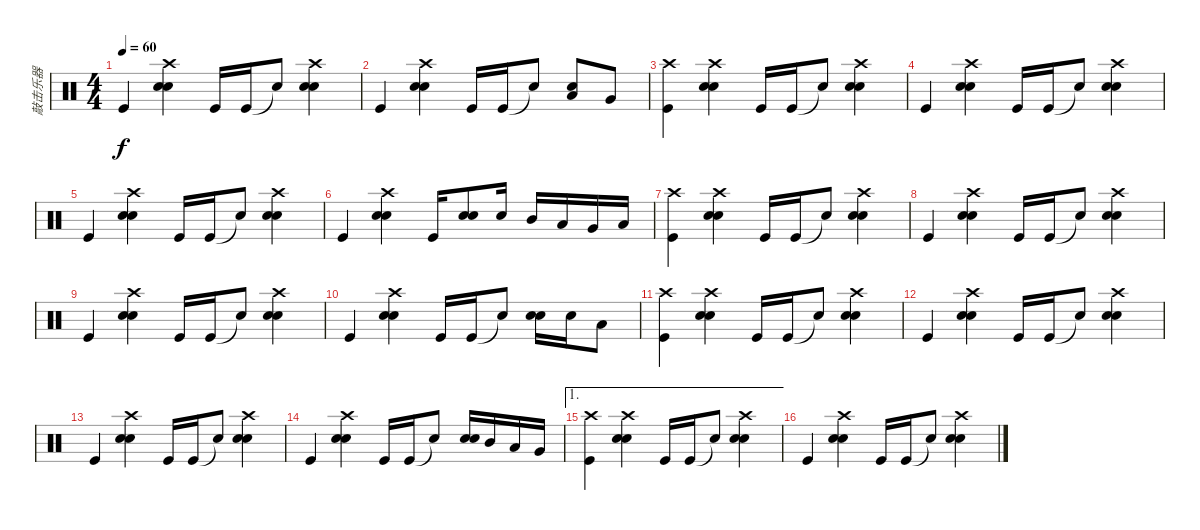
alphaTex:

\track ("敲击乐器" "敲击乐器") {instrument percussion}
\staff {score}
\articulation defaults
\ts (4 4)
\tempo 60
\clef neutral
\ks c "Kick (hit)".4{dy f}
("Crash high (hit)" "Snare (hit) 2" "Snare (hit) 2").4 "Kick (hit)".16 "Kick (hit)".16 "Snare (hit)"{t}.8 ("Crash high (hit)" "Snare (hit) 2" "Snare (hit) 2").4 |
"Kick (hit)".4 ("Crash high (hit)" "Snare (hit) 2" "Snare (hit) 2").4 "Kick (hit)".16 "Kick (hit)".16 "Snare (hit)"{t}.8 ("Low Tom (hit)" "Snare (hit) 2").8 "Very Low Tom (hit)".8 |
("Crash high (hit)" "Kick (hit)").4 ("Crash high (hit)" "Snare (hit) 2" "Snare (hit) 2").4 "Kick (hit)".16 "Kick (hit)".16 "Snare (hit)"{t}.8 ("Crash high (hit)" "Snare (hit) 2" "Snare (hit) 2").4 |
"Kick (hit)".4 ("Crash high (hit)" "Snare (hit) 2" "Snare (hit) 2").4 "Kick (hit)".16 "Kick (hit)".16 "Snare (hit)"{t}.8 ("Crash high (hit)" "Snare (hit) 2" "Snare (hit) 2").4 |
"Kick (hit)".4 ("Crash high (hit)" "Snare (hit) 2" "Snare (hit) 2").4 "Kick (hit)".16 "Kick (hit)".16 "Snare (hit)"{t}.8 ("Crash high (hit)" "Snare (hit) 2" "Snare (hit) 2").4 |
"Kick (hit)".4 ("Crash high (hit)" "Snare (hit) 2" "Snare (hit) 2").4 "Kick (hit)".16 ("Snare (hit) 2" "Snare (hit) 2").8 "Snare (hit) 2".16 "Mid Tom (hit)".16 "Low Tom (hit)".16 "Very Low Tom (hit)".16 "Low Floor Tom (hit)".16 |
("Crash high (hit)" "Kick (hit)").4 ("Crash high (hit)" "Snare (hit) 2" "Snare (hit) 2").4 "Kick (hit)".16 "Kick (hit)".16 "Snare (hit)"{t}.8 ("Crash high (hit)" "Snare (hit) 2" "Snare (hit) 2").4 |
"Kick (hit)".4 ("Crash high (hit)" "Snare (hit) 2" "Snare (hit) 2").4 "Kick (hit)".16 "Kick (hit)".16 "Snare (hit)"{t}.8 ("Crash high (hit)" "Snare (hit) 2" "Snare (hit) 2").4 |
"Kick (hit)".4 ("Crash high (hit)" "Snare (hit) 2" "Snare (hit) 2").4 "Kick (hit)".16 "Kick (hit)".16 "Snare (hit)"{t}.8 ("Crash high (hit)" "Snare (hit) 2" "Snare (hit) 2").4 |
"Kick (hit)".4 ("Crash high (hit)" "Snare (hit) 2" "Snare (hit) 2").4 "Kick (hit)".16 "Kick (hit)".16 "Snare (hit)"{t}.8 ("Snare (hit) 2" "Snare (hit) 2").16 "Snare (hit) 2".16 "Low Tom (hit)".8 |
("Crash high (hit)" "Kick (hit)").4 ("Snare (hit) 2" "Crash high (hit)" "Snare (hit) 2").4 "Kick (hit)".16 "Kick (hit)".16 "Snare (hit)"{t}.8 ("Snare (hit) 2" "Crash high (hit)" "Snare (hit) 2").4 |
"Kick (hit)".4 ("Snare (hit) 2" "Crash high (hit)" "Snare (hit) 2").4 "Kick (hit)".16 "Kick (hit)".16 "Snare (hit)"{t}.8 ("Snare (hit) 2" "Crash high (hit)" "Snare (hit) 2").4 |
"Kick (hit)".4 ("Snare (hit) 2" "Crash high (hit)" "Snare (hit) 2").4 "Kick (hit)".16 "Kick (hit)".16 "Snare (hit)"{t}.8 ("Snare (hit) 2" "Crash high (hit)" "Snare (hit) 2").4 |
"Kick (hit)".4 ("Snare (hit) 2" "Crash high (hit)" "Snare (hit) 2").4 "Kick (hit)".16 "Kick (hit)".16 "Snare (hit)"{t}.8 ("Snare (hit) 2" "Snare (hit) 2").16 "Mid Tom (hit)".16 "Low Tom (hit)".16 "Very Low Tom (hit)".16 |
\ae 1
("Crash high (hit)" "Kick (hit)").4 ("Snare (hit) 2" "Crash high (hit)" "Snare (hit) 2").4 "Kick (hit)".16 "Kick (hit)".16 "Snare (hit)"{t}.8 ("Snare (hit) 2" "Crash high (hit)" "Snare (hit) 2").4 |
"Kick (hit)".4 ("Snare (hit) 2" "Crash high (hit)" "Snare (hit) 2").4 "Kick (hit)".16 "Kick (hit)".16 "Snare (hit)"{t}.8 ("Snare (hit) 2" "Crash high (hit)" "Snare (hit) 2").4
